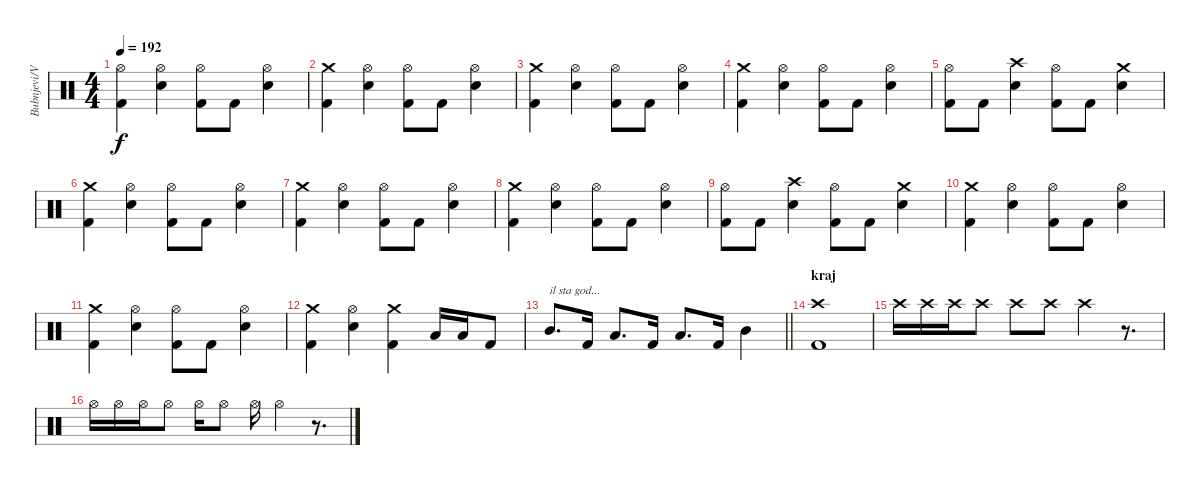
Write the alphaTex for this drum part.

\track ("Bubnjevi/Vestac Tlacitelj" "Bubnjevi/V") {instrument percussion}
\staff {score}
\articulation defaults
\ts (4 4)
\tempo 192
\clef neutral
\ks c
("Hi-Hat (open)" "Kick (hit) 2").4{dy f} ("Hi-Hat (open)" "Electric Snare (hit)").4 ("Hi-Hat (open)" "Kick (hit) 2").8 "Kick (hit) 2".8 ("Hi-Hat (open)" "Electric Snare (hit)").4 |
("Crash medium (hit)" "Kick (hit) 2").4 ("Hi-Hat (open)" "Electric Snare (hit)").4 ("Hi-Hat (open)" "Kick (hit) 2").8 "Kick (hit) 2".8 ("Hi-Hat (open)" "Electric Snare (hit)").4 |
("Crash medium (hit)" "Kick (hit) 2").4 ("Hi-Hat (open)" "Electric Snare (hit)").4 ("Hi-Hat (open)" "Kick (hit) 2").8 "Kick (hit) 2".8 ("Hi-Hat (open)" "Electric Snare (hit)").4 |
("Crash medium (hit)" "Kick (hit) 2").4 ("Hi-Hat (open)" "Electric Snare (hit)").4 ("Hi-Hat (open)" "Kick (hit) 2").8 "Kick (hit) 2".8 ("Hi-Hat (open)" "Electric Snare (hit)").4 |
("Hi-Hat (open)" "Kick (hit) 2").8 "Kick (hit) 2".8 ("Crash high (hit)" "Electric Snare (hit)").4 ("Hi-Hat (open)" "Kick (hit) 2").8 "Kick (hit) 2".8 ("Crash medium (hit)" "Electric Snare (hit)").4 |
("Crash medium (hit)" "Kick (hit) 2").4 ("Hi-Hat (open)" "Electric Snare (hit)").4 ("Hi-Hat (open)" "Kick (hit) 2").8 "Kick (hit) 2".8 ("Hi-Hat (open)" "Electric Snare (hit)").4 |
("Crash medium (hit)" "Kick (hit) 2").4 ("Hi-Hat (open)" "Electric Snare (hit)").4 ("Hi-Hat (open)" "Kick (hit) 2").8 "Kick (hit) 2".8 ("Hi-Hat (open)" "Electric Snare (hit)").4 |
("Crash medium (hit)" "Kick (hit) 2").4 ("Hi-Hat (open)" "Electric Snare (hit)").4 ("Hi-Hat (open)" "Kick (hit) 2").8 "Kick (hit) 2".8 ("Hi-Hat (open)" "Electric Snare (hit)").4 |
("Hi-Hat (open)" "Kick (hit) 2").8 "Kick (hit) 2".8 ("Crash high (hit)" "Electric Snare (hit)").4 ("Hi-Hat (open)" "Kick (hit) 2").8 "Kick (hit) 2".8 ("Crash medium (hit)" "Electric Snare (hit)").4 |
("Crash medium (hit)" "Kick (hit) 2").4 ("Hi-Hat (open)" "Electric Snare (hit)").4 ("Hi-Hat (open)" "Kick (hit) 2").8 "Kick (hit) 2".8 ("Hi-Hat (open)" "Electric Snare (hit)").4 |
("Crash medium (hit)" "Kick (hit) 2").4 ("Hi-Hat (open)" "Electric Snare (hit)").4 ("Hi-Hat (open)" "Kick (hit) 2").8 "Kick (hit) 2".8 ("Hi-Hat (open)" "Electric Snare (hit)").4 |
("Crash medium (hit)" "Kick (hit) 2").4 ("Hi-Hat (open)" "Electric Snare (hit)").4 ("Crash medium (hit)" "Kick (hit) 2").4 "Low Tom (hit)".16 "Low Tom (hit)".16 "Kick (hit) 2".8 |
\barLineRight lightlight "Mid Tom (hit)".8{d txt "il sta god..."} "Kick (hit) 2".16 "Low Tom (hit)".8{d} "Kick (hit) 2".16 "Low Floor Tom (hit)".8{d} "Kick (hit) 2".16 "Mid Tom (hit)".4
|
\section ("" "kraj")
("Crash high (hit)" "Kick (hit) 2").1 |
"Crash high (hit)".16 "Crash high (hit)".16 "Crash high (hit)".16 "Crash high (hit)".8 "Crash high (hit)".8 "Crash high (hit)".8 "Crash high (hit)".4 r.8{d} |
"Hi-Hat (open)".16 "Hi-Hat (open)".16 "Hi-Hat (open)".16 "Hi-Hat (open)".8 "Hi-Hat (open)".16 "Hi-Hat (open)".8 "Hi-Hat (open)".16 "Hi-Hat (open)".4 r.8{d}
